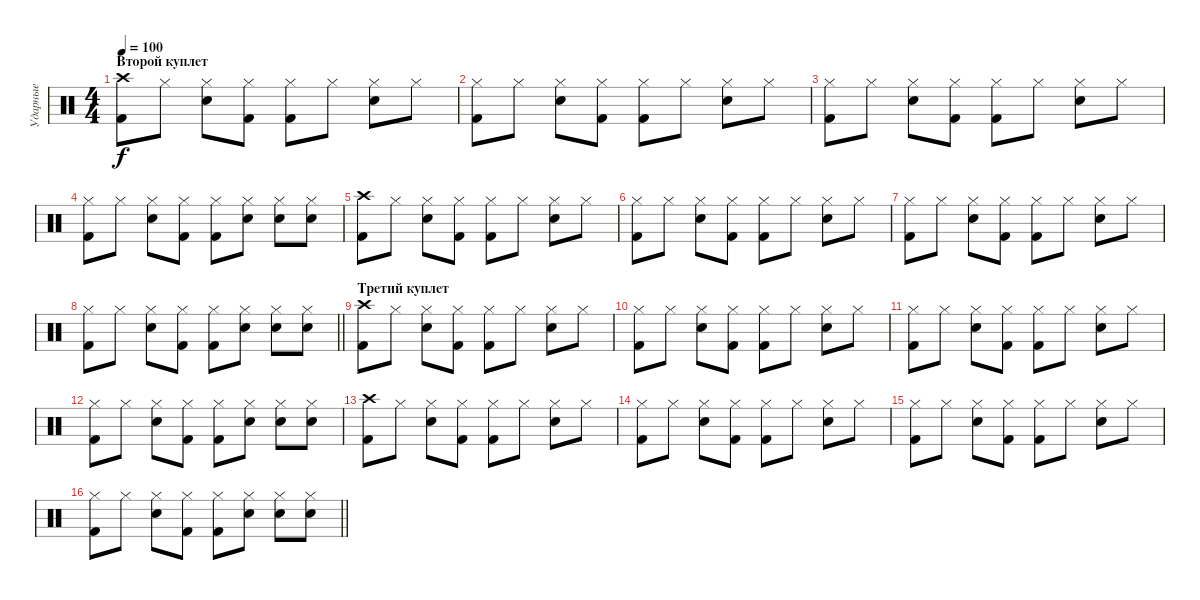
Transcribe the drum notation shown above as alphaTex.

\track ("Ударные" "Ударные") {instrument percussion}
\staff {score}
\articulation defaults
\ts (4 4)
\section ("" "Второй куплет")
\tempo 100
\clef neutral
\ks c
("Crash high (hit)" "Kick (hit) 2").8{dy f} "Hi-Hat (closed)".8 ("Hi-Hat (closed)" "Snare (hit) 2").8 ("Hi-Hat (closed)" "Kick (hit) 2").8 ("Hi-Hat (closed)" "Kick (hit) 2").8 "Hi-Hat (closed)".8 ("Hi-Hat (closed)" "Snare (hit) 2").8 "Hi-Hat (closed)".8 |
("Hi-Hat (closed)" "Kick (hit) 2").8 "Hi-Hat (closed)".8 ("Hi-Hat (closed)" "Snare (hit) 2").8 ("Hi-Hat (closed)" "Kick (hit) 2").8 ("Hi-Hat (closed)" "Kick (hit) 2").8 "Hi-Hat (closed)".8 ("Hi-Hat (closed)" "Snare (hit) 2").8 "Hi-Hat (closed)".8 |
("Hi-Hat (closed)" "Kick (hit) 2").8 "Hi-Hat (closed)".8 ("Hi-Hat (closed)" "Snare (hit) 2").8 ("Hi-Hat (closed)" "Kick (hit) 2").8 ("Hi-Hat (closed)" "Kick (hit) 2").8 "Hi-Hat (closed)".8 ("Hi-Hat (closed)" "Snare (hit) 2").8 "Hi-Hat (closed)".8 |
("Hi-Hat (closed)" "Kick (hit) 2").8 "Hi-Hat (closed)".8 ("Hi-Hat (closed)" "Snare (hit) 2").8 ("Hi-Hat (closed)" "Kick (hit) 2").8 ("Hi-Hat (closed)" "Kick (hit) 2").8 ("Hi-Hat (closed)" "Snare (hit) 2").8 ("Hi-Hat (closed)" "Snare (hit) 2").8 ("Hi-Hat (closed)" "Snare (hit) 2").8 |
("Crash high (hit)" "Kick (hit) 2").8 "Hi-Hat (closed)".8 ("Hi-Hat (closed)" "Snare (hit) 2").8 ("Hi-Hat (closed)" "Kick (hit) 2").8 ("Hi-Hat (closed)" "Kick (hit) 2").8 "Hi-Hat (closed)".8 ("Hi-Hat (closed)" "Snare (hit) 2").8 "Hi-Hat (closed)".8 |
("Hi-Hat (closed)" "Kick (hit) 2").8 "Hi-Hat (closed)".8 ("Hi-Hat (closed)" "Snare (hit) 2").8 ("Hi-Hat (closed)" "Kick (hit) 2").8 ("Hi-Hat (closed)" "Kick (hit) 2").8 "Hi-Hat (closed)".8 ("Hi-Hat (closed)" "Snare (hit) 2").8 "Hi-Hat (closed)".8 |
("Hi-Hat (closed)" "Kick (hit) 2").8 "Hi-Hat (closed)".8 ("Hi-Hat (closed)" "Snare (hit) 2").8 ("Hi-Hat (closed)" "Kick (hit) 2").8 ("Hi-Hat (closed)" "Kick (hit) 2").8 "Hi-Hat (closed)".8 ("Hi-Hat (closed)" "Snare (hit) 2").8 "Hi-Hat (closed)".8 |
\barLineRight lightlight
("Hi-Hat (closed)" "Kick (hit) 2").8 "Hi-Hat (closed)".8 ("Hi-Hat (closed)" "Snare (hit) 2").8 ("Hi-Hat (closed)" "Kick (hit) 2").8 ("Hi-Hat (closed)" "Kick (hit) 2").8 ("Hi-Hat (closed)" "Snare (hit) 2").8 ("Hi-Hat (closed)" "Snare (hit) 2").8 ("Hi-Hat (closed)" "Snare (hit) 2").8 |
\section ("" "Третий куплет")
("Crash high (hit)" "Kick (hit) 2").8 "Hi-Hat (closed)".8 ("Hi-Hat (closed)" "Snare (hit) 2").8 ("Hi-Hat (closed)" "Kick (hit) 2").8 ("Hi-Hat (closed)" "Kick (hit) 2").8 "Hi-Hat (closed)".8 ("Hi-Hat (closed)" "Snare (hit) 2").8 "Hi-Hat (closed)".8 |
("Hi-Hat (closed)" "Kick (hit) 2").8 "Hi-Hat (closed)".8 ("Hi-Hat (closed)" "Snare (hit) 2").8 ("Hi-Hat (closed)" "Kick (hit) 2").8 ("Hi-Hat (closed)" "Kick (hit) 2").8 "Hi-Hat (closed)".8 ("Hi-Hat (closed)" "Snare (hit) 2").8 "Hi-Hat (closed)".8 |
("Hi-Hat (closed)" "Kick (hit) 2").8 "Hi-Hat (closed)".8 ("Hi-Hat (closed)" "Snare (hit) 2").8 ("Hi-Hat (closed)" "Kick (hit) 2").8 ("Hi-Hat (closed)" "Kick (hit) 2").8 "Hi-Hat (closed)".8 ("Hi-Hat (closed)" "Snare (hit) 2").8 "Hi-Hat (closed)".8 |
("Hi-Hat (closed)" "Kick (hit) 2").8 "Hi-Hat (closed)".8 ("Hi-Hat (closed)" "Snare (hit) 2").8 ("Hi-Hat (closed)" "Kick (hit) 2").8 ("Hi-Hat (closed)" "Kick (hit) 2").8 ("Hi-Hat (closed)" "Snare (hit) 2").8 ("Hi-Hat (closed)" "Snare (hit) 2").8 ("Hi-Hat (closed)" "Snare (hit) 2").8 |
("Crash high (hit)" "Kick (hit) 2").8 "Hi-Hat (closed)".8 ("Hi-Hat (closed)" "Snare (hit) 2").8 ("Hi-Hat (closed)" "Kick (hit) 2").8 ("Hi-Hat (closed)" "Kick (hit) 2").8 "Hi-Hat (closed)".8 ("Hi-Hat (closed)" "Snare (hit) 2").8 "Hi-Hat (closed)".8 |
("Hi-Hat (closed)" "Kick (hit) 2").8 "Hi-Hat (closed)".8 ("Hi-Hat (closed)" "Snare (hit) 2").8 ("Hi-Hat (closed)" "Kick (hit) 2").8 ("Hi-Hat (closed)" "Kick (hit) 2").8 "Hi-Hat (closed)".8 ("Hi-Hat (closed)" "Snare (hit) 2").8 "Hi-Hat (closed)".8 |
("Hi-Hat (closed)" "Kick (hit) 2").8 "Hi-Hat (closed)".8 ("Hi-Hat (closed)" "Snare (hit) 2").8 ("Hi-Hat (closed)" "Kick (hit) 2").8 ("Hi-Hat (closed)" "Kick (hit) 2").8 "Hi-Hat (closed)".8 ("Hi-Hat (closed)" "Snare (hit) 2").8 "Hi-Hat (closed)".8 |
\barLineRight lightlight
("Hi-Hat (closed)" "Kick (hit) 2").8 "Hi-Hat (closed)".8 ("Hi-Hat (closed)" "Snare (hit) 2").8 ("Hi-Hat (closed)" "Kick (hit) 2").8 ("Hi-Hat (closed)" "Kick (hit) 2").8 ("Hi-Hat (closed)" "Snare (hit) 2").8 ("Hi-Hat (closed)" "Snare (hit) 2").8 ("Hi-Hat (closed)" "Snare (hit) 2").8
